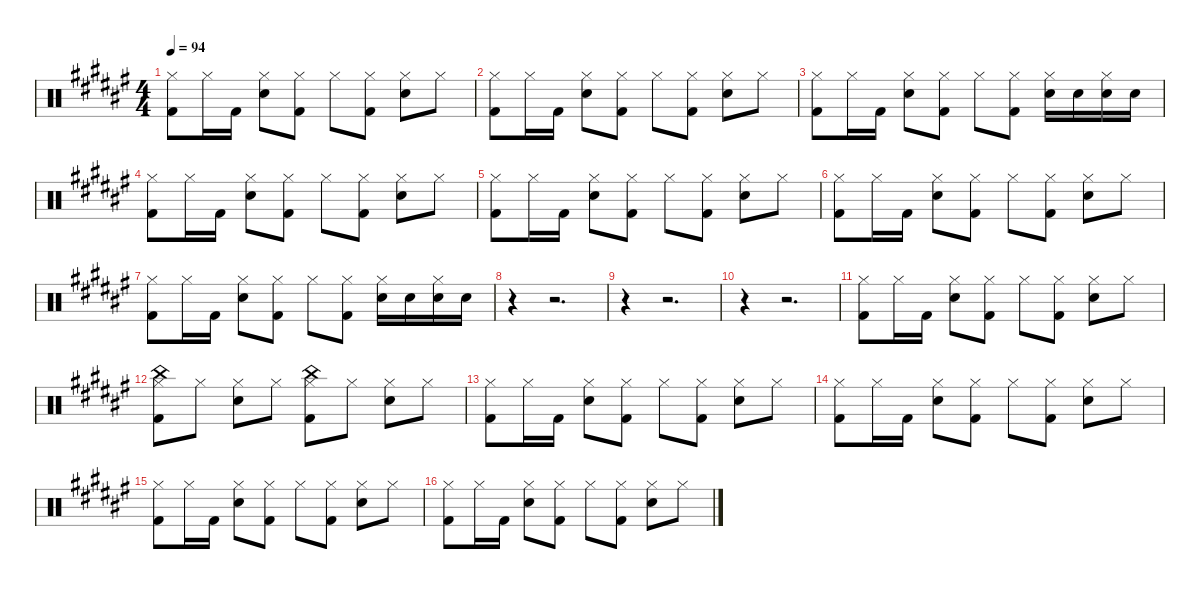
\defaultSystemsLayout 4
\hideDynamics
\bracketExtendMode nobrackets
\singleTrackTrackNamePolicy hidden
\multiTrackTrackNamePolicy hidden
\otherSystemsTrackNameOrientation horizontal
\track ("Mike Joyce" "drm.") {instrument percussion}
\staff {score}
\articulation defaults
\ts (4 4)
\tempo 94
\clef neutral
\ks f#
("Hi-Hat (closed)"{acc forcenatural} "Kick (hit) 2"{acc forcenatural}).8{dy f beam Down} "Hi-Hat (closed)"{acc forcenatural}.16{beam Down} "Kick (hit) 2"{acc forcenatural}.16{beam Down} ("Hi-Hat (closed)"{acc forcenatural} "Snare (hit) 2"{acc forcenatural}).8{beam Down} ("Hi-Hat (closed)"{acc forcenatural} "Kick (hit) 2"{acc forcenatural}).8{beam Down} "Hi-Hat (closed)"{acc forcenatural}.8{beam Down} ("Hi-Hat (closed)"{acc forcenatural} "Kick (hit) 2"{acc forcenatural}).8{beam Down} ("Hi-Hat (closed)"{acc forcenatural} "Snare (hit) 2"{acc forcenatural}).8{beam Down} "Hi-Hat (closed)"{acc forcenatural}.8{beam Down} |
("Hi-Hat (closed)"{acc forcenatural} "Kick (hit) 2"{acc forcenatural}).8{beam Down} "Hi-Hat (closed)"{acc forcenatural}.16{beam Down} "Kick (hit) 2"{acc forcenatural}.16{beam Down} ("Hi-Hat (closed)"{acc forcenatural} "Snare (hit) 2"{acc forcenatural}).8{beam Down} ("Hi-Hat (closed)"{acc forcenatural} "Kick (hit) 2"{acc forcenatural}).8{beam Down} "Hi-Hat (closed)"{acc forcenatural}.8{beam Down} ("Hi-Hat (closed)"{acc forcenatural} "Kick (hit) 2"{acc forcenatural}).8{beam Down} ("Hi-Hat (closed)"{acc forcenatural} "Snare (hit) 2"{acc forcenatural}).8{beam Down} "Hi-Hat (closed)"{acc forcenatural}.8{beam Down} |
("Hi-Hat (closed)"{acc forcenatural} "Kick (hit) 2"{acc forcenatural}).8{beam Down} "Hi-Hat (closed)"{acc forcenatural}.16{beam Down} "Kick (hit) 2"{acc forcenatural}.16{beam Down} ("Hi-Hat (closed)"{acc forcenatural} "Snare (hit) 2"{acc forcenatural}).8{beam Down} ("Hi-Hat (closed)"{acc forcenatural} "Kick (hit) 2"{acc forcenatural}).8{beam Down} "Hi-Hat (closed)"{acc forcenatural}.8{beam Down} ("Hi-Hat (closed)"{acc forcenatural} "Kick (hit) 2"{acc forcenatural}).8{beam Down} ("Hi-Hat (closed)"{acc forcenatural} "Snare (hit) 2"{acc forcenatural}).16{beam Down} "Snare (hit) 2"{acc forcenatural}.16{beam Down} ("Hi-Hat (closed)"{acc forcenatural} "Snare (hit) 2"{acc forcenatural}).16{beam Down} "Snare (hit) 2"{acc forcenatural}.16{beam Down} |
("Hi-Hat (closed)"{acc forcenatural} "Kick (hit) 2"{acc forcenatural}).8{beam Down} "Hi-Hat (closed)"{acc forcenatural}.16{beam Down} "Kick (hit) 2"{acc forcenatural}.16{beam Down} ("Hi-Hat (closed)"{acc forcenatural} "Snare (hit) 2"{acc forcenatural}).8{beam Down} ("Hi-Hat (closed)"{acc forcenatural} "Kick (hit) 2"{acc forcenatural}).8{beam Down} "Hi-Hat (closed)"{acc forcenatural}.8{beam Down} ("Hi-Hat (closed)"{acc forcenatural} "Kick (hit) 2"{acc forcenatural}).8{beam Down} ("Hi-Hat (closed)"{acc forcenatural} "Snare (hit) 2"{acc forcenatural}).8{beam Down} "Hi-Hat (closed)"{acc forcenatural}.8{beam Down} |
("Hi-Hat (closed)"{acc forcenatural} "Kick (hit) 2"{acc forcenatural}).8{beam Down} "Hi-Hat (closed)"{acc forcenatural}.16{beam Down} "Kick (hit) 2"{acc forcenatural}.16{beam Down} ("Hi-Hat (closed)"{acc forcenatural} "Snare (hit) 2"{acc forcenatural}).8{beam Down} ("Hi-Hat (closed)"{acc forcenatural} "Kick (hit) 2"{acc forcenatural}).8{beam Down} "Hi-Hat (closed)"{acc forcenatural}.8{beam Down} ("Hi-Hat (closed)"{acc forcenatural} "Kick (hit) 2"{acc forcenatural}).8{beam Down} ("Hi-Hat (closed)"{acc forcenatural} "Snare (hit) 2"{acc forcenatural}).8{beam Down} "Hi-Hat (closed)"{acc forcenatural}.8{beam Down} |
("Hi-Hat (closed)"{acc forcenatural} "Kick (hit) 2"{acc forcenatural}).8{beam Down} "Hi-Hat (closed)"{acc forcenatural}.16{beam Down} "Kick (hit) 2"{acc forcenatural}.16{beam Down} ("Hi-Hat (closed)"{acc forcenatural} "Snare (hit) 2"{acc forcenatural}).8{beam Down} ("Hi-Hat (closed)"{acc forcenatural} "Kick (hit) 2"{acc forcenatural}).8{beam Down} "Hi-Hat (closed)"{acc forcenatural}.8{beam Down} ("Hi-Hat (closed)"{acc forcenatural} "Kick (hit) 2"{acc forcenatural}).8{beam Down} ("Hi-Hat (closed)"{acc forcenatural} "Snare (hit) 2"{acc forcenatural}).8{beam Down} "Hi-Hat (closed)"{acc forcenatural}.8{beam Down} |
("Hi-Hat (closed)"{acc forcenatural} "Kick (hit) 2"{acc forcenatural}).8{beam Down} "Hi-Hat (closed)"{acc forcenatural}.16{beam Down} "Kick (hit) 2"{acc forcenatural}.16{beam Down} ("Hi-Hat (closed)"{acc forcenatural} "Snare (hit) 2"{acc forcenatural}).8{beam Down} ("Hi-Hat (closed)"{acc forcenatural} "Kick (hit) 2"{acc forcenatural}).8{beam Down} "Hi-Hat (closed)"{acc forcenatural}.8{beam Down} ("Hi-Hat (closed)"{acc forcenatural} "Kick (hit) 2"{acc forcenatural}).8{beam Down} ("Hi-Hat (closed)"{acc forcenatural} "Snare (hit) 2"{acc forcenatural}).16{beam Down} "Snare (hit) 2"{acc forcenatural}.16{beam Down} ("Hi-Hat (closed)"{acc forcenatural} "Snare (hit) 2"{acc forcenatural}).16{beam Down} "Snare (hit) 2"{acc forcenatural}.16{beam Down} |
r.4{beam Down} r.2{d beam Down} |
r.4{beam Down} r.2{d beam Down} |
r.4{beam Down} r.2{d beam Down} |
("Hi-Hat (closed)"{acc forcenatural} "Kick (hit) 2"{acc forcenatural}).8{beam Down} "Hi-Hat (closed)"{acc forcenatural}.16{beam Down} "Kick (hit) 2"{acc forcenatural}.16{beam Down} ("Hi-Hat (closed)"{acc forcenatural} "Snare (hit) 2"{acc forcenatural}).8{beam Down} ("Hi-Hat (closed)"{acc forcenatural} "Kick (hit) 2"{acc forcenatural}).8{beam Down} "Hi-Hat (closed)"{acc forcenatural}.8{beam Down} ("Hi-Hat (closed)"{acc forcenatural} "Kick (hit) 2"{acc forcenatural}).8{beam Down} ("Hi-Hat (closed)"{acc forcenatural} "Snare (hit) 2"{acc forcenatural}).8{beam Down} "Hi-Hat (closed)"{acc forcenatural}.8{beam Down} |
("China (hit)"{acc forcenatural} "Hi-Hat (closed)"{acc forcenatural} "Kick (hit) 2"{acc forcenatural}).8{dy pp beam Down} "Hi-Hat (closed)"{acc forcenatural}.8{dy f beam Down} ("Hi-Hat (closed)"{acc forcenatural} "Snare (hit) 2"{acc forcenatural}).8{beam Down} "Hi-Hat (closed)"{acc forcenatural}.8{beam Down} ("China (hit)"{acc forcenatural} "Hi-Hat (closed)"{acc forcenatural} "Kick (hit) 2"{acc forcenatural}).8{dy pp beam Down} "Hi-Hat (closed)"{acc forcenatural}.8{dy f beam Down} ("Hi-Hat (closed)"{acc forcenatural} "Snare (hit) 2"{acc forcenatural}).8{beam Down} "Hi-Hat (closed)"{acc forcenatural}.8{beam Down} |
("Hi-Hat (closed)"{acc forcenatural} "Kick (hit) 2"{acc forcenatural}).8{beam Down} "Hi-Hat (closed)"{acc forcenatural}.16{beam Down} "Kick (hit) 2"{acc forcenatural}.16{beam Down} ("Hi-Hat (closed)"{acc forcenatural} "Snare (hit) 2"{acc forcenatural}).8{beam Down} ("Hi-Hat (closed)"{acc forcenatural} "Kick (hit) 2"{acc forcenatural}).8{beam Down} "Hi-Hat (closed)"{acc forcenatural}.8{beam Down} ("Hi-Hat (closed)"{acc forcenatural} "Kick (hit) 2"{acc forcenatural}).8{beam Down} ("Hi-Hat (closed)"{acc forcenatural} "Snare (hit) 2"{acc forcenatural}).8{beam Down} "Hi-Hat (closed)"{acc forcenatural}.8{beam Down} |
("Hi-Hat (closed)"{acc forcenatural} "Kick (hit) 2"{acc forcenatural}).8{beam Down} "Hi-Hat (closed)"{acc forcenatural}.16{beam Down} "Kick (hit) 2"{acc forcenatural}.16{beam Down} ("Hi-Hat (closed)"{acc forcenatural} "Snare (hit) 2"{acc forcenatural}).8{beam Down} ("Hi-Hat (closed)"{acc forcenatural} "Kick (hit) 2"{acc forcenatural}).8{beam Down} "Hi-Hat (closed)"{acc forcenatural}.8{beam Down} ("Hi-Hat (closed)"{acc forcenatural} "Kick (hit) 2"{acc forcenatural}).8{beam Down} ("Hi-Hat (closed)"{acc forcenatural} "Snare (hit) 2"{acc forcenatural}).8{beam Down} "Hi-Hat (closed)"{acc forcenatural}.8{beam Down} |
("Hi-Hat (closed)"{acc forcenatural} "Kick (hit) 2"{acc forcenatural}).8{beam Down} "Hi-Hat (closed)"{acc forcenatural}.16{beam Down} "Kick (hit) 2"{acc forcenatural}.16{beam Down} ("Hi-Hat (closed)"{acc forcenatural} "Snare (hit) 2"{acc forcenatural}).8{beam Down} ("Hi-Hat (closed)"{acc forcenatural} "Kick (hit) 2"{acc forcenatural}).8{beam Down} "Hi-Hat (closed)"{acc forcenatural}.8{beam Down} ("Hi-Hat (closed)"{acc forcenatural} "Kick (hit) 2"{acc forcenatural}).8{beam Down} ("Hi-Hat (closed)"{acc forcenatural} "Snare (hit) 2"{acc forcenatural}).8{beam Down} "Hi-Hat (closed)"{acc forcenatural}.8{beam Down} |
("Hi-Hat (closed)"{acc forcenatural} "Kick (hit) 2"{acc forcenatural}).8{beam Down} "Hi-Hat (closed)"{acc forcenatural}.16{beam Down} "Kick (hit) 2"{acc forcenatural}.16{beam Down} ("Hi-Hat (closed)"{acc forcenatural} "Snare (hit) 2"{acc forcenatural}).8{beam Down} ("Hi-Hat (closed)"{acc forcenatural} "Kick (hit) 2"{acc forcenatural}).8{beam Down} "Hi-Hat (closed)"{acc forcenatural}.8{beam Down} ("Hi-Hat (closed)"{acc forcenatural} "Kick (hit) 2"{acc forcenatural}).8{beam Down} ("Hi-Hat (closed)"{acc forcenatural} "Snare (hit) 2"{acc forcenatural}).8{beam Down} "Hi-Hat (closed)"{acc forcenatural}.8{beam Down}
